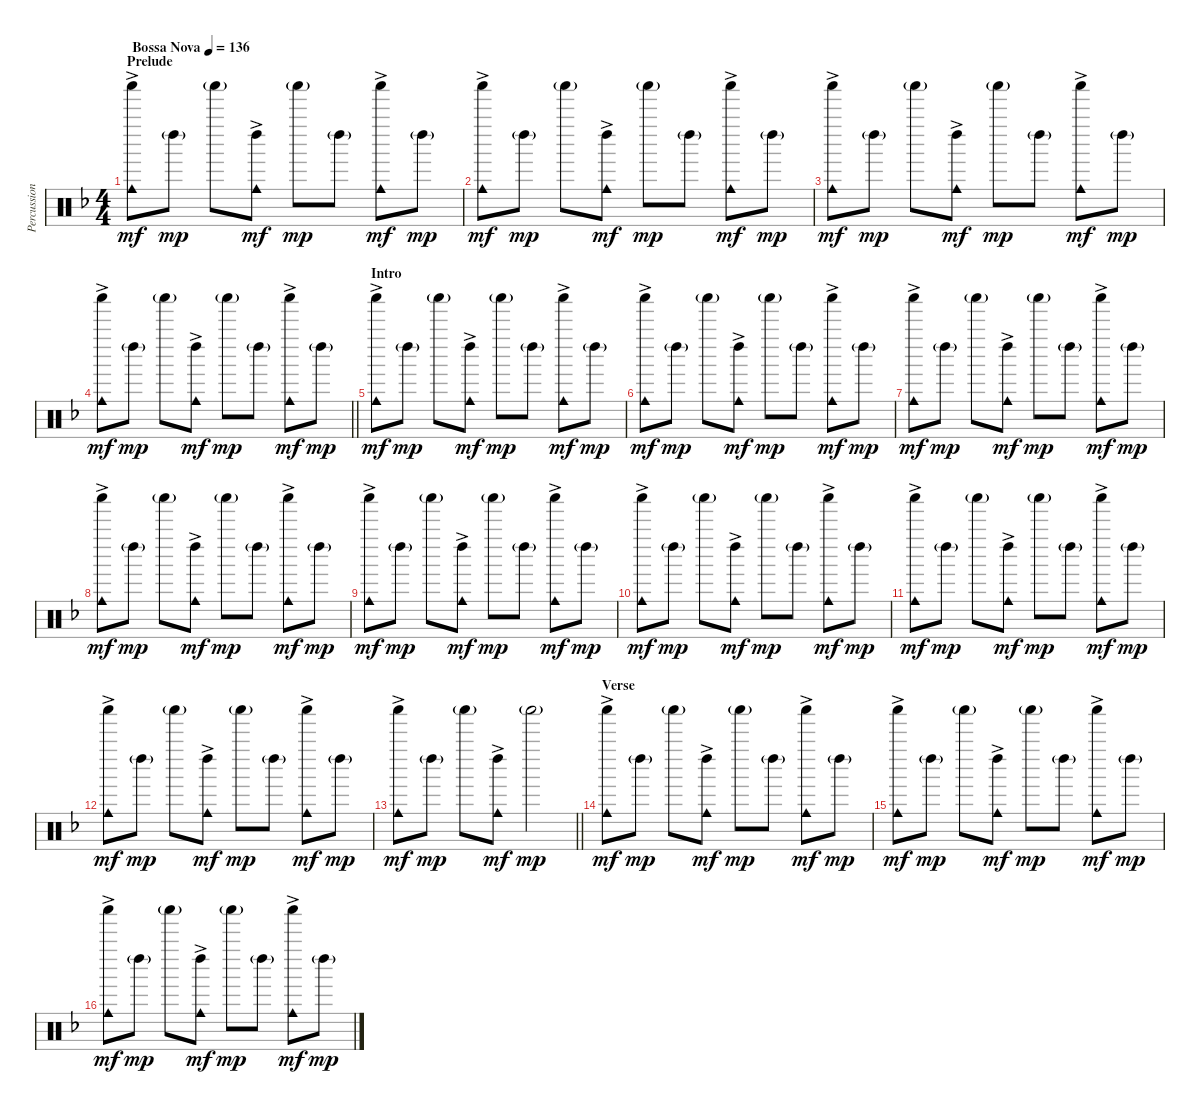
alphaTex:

\track ("Percussion" "Percussion") {instrument percussion}
\staff {score}
\articulation defaults
\ts (4 4)
\section ("" "Prelude")
\tempo (136 "Bossa Nova")
\clef neutral
\ks f
("Shaker (hit)"{ac} "Cowbell medium (hit)").8{dy mf} "Left Maraca (hit)"{g}.8{dy mp} "Shaker (hit)"{g}.8 ("Left Maraca (hit)"{ac} "Cowbell medium (hit)").8{dy mf} "Shaker (hit)"{g}.8{dy mp} "Left Maraca (hit)"{g}.8 ("Shaker (hit)"{ac} "Cowbell medium (hit)").8{dy mf} "Left Maraca (hit)"{g}.8{dy mp} |
("Shaker (hit)"{ac} "Cowbell medium (hit)").8{dy mf} "Left Maraca (hit)"{g}.8{dy mp} "Shaker (hit)"{g}.8 ("Left Maraca (hit)"{ac} "Cowbell medium (hit)").8{dy mf} "Shaker (hit)"{g}.8{dy mp} "Left Maraca (hit)"{g}.8 ("Shaker (hit)"{ac} "Cowbell medium (hit)").8{dy mf} "Left Maraca (hit)"{g}.8{dy mp} |
("Shaker (hit)"{ac} "Cowbell medium (hit)").8{dy mf} "Left Maraca (hit)"{g}.8{dy mp} "Shaker (hit)"{g}.8 ("Left Maraca (hit)"{ac} "Cowbell medium (hit)").8{dy mf} "Shaker (hit)"{g}.8{dy mp} "Left Maraca (hit)"{g}.8 ("Shaker (hit)"{ac} "Cowbell medium (hit)").8{dy mf} "Left Maraca (hit)"{g}.8{dy mp} |
\barLineRight lightlight
("Shaker (hit)"{ac} "Cowbell medium (hit)").8{dy mf} "Left Maraca (hit)"{g}.8{dy mp} "Shaker (hit)"{g}.8 ("Left Maraca (hit)"{ac} "Cowbell medium (hit)").8{dy mf} "Shaker (hit)"{g}.8{dy mp} "Left Maraca (hit)"{g}.8 ("Shaker (hit)"{ac} "Cowbell medium (hit)").8{dy mf} "Left Maraca (hit)"{g}.8{dy mp} |
\section ("" "Intro")
("Shaker (hit)"{ac} "Cowbell medium (hit)").8{dy mf} "Left Maraca (hit)"{g}.8{dy mp} "Shaker (hit)"{g}.8 ("Left Maraca (hit)"{ac} "Cowbell medium (hit)").8{dy mf} "Shaker (hit)"{g}.8{dy mp} "Left Maraca (hit)"{g}.8 ("Shaker (hit)"{ac} "Cowbell medium (hit)").8{dy mf} "Left Maraca (hit)"{g}.8{dy mp} |
("Shaker (hit)"{ac} "Cowbell medium (hit)").8{dy mf} "Left Maraca (hit)"{g}.8{dy mp} "Shaker (hit)"{g}.8 ("Left Maraca (hit)"{ac} "Cowbell medium (hit)").8{dy mf} "Shaker (hit)"{g}.8{dy mp} "Left Maraca (hit)"{g}.8 ("Shaker (hit)"{ac} "Cowbell medium (hit)").8{dy mf} "Left Maraca (hit)"{g}.8{dy mp} |
("Shaker (hit)"{ac} "Cowbell medium (hit)").8{dy mf} "Left Maraca (hit)"{g}.8{dy mp} "Shaker (hit)"{g}.8 ("Left Maraca (hit)"{ac} "Cowbell medium (hit)").8{dy mf} "Shaker (hit)"{g}.8{dy mp} "Left Maraca (hit)"{g}.8 ("Shaker (hit)"{ac} "Cowbell medium (hit)").8{dy mf} "Left Maraca (hit)"{g}.8{dy mp} |
("Shaker (hit)"{ac} "Cowbell medium (hit)").8{dy mf} "Left Maraca (hit)"{g}.8{dy mp} "Shaker (hit)"{g}.8 ("Left Maraca (hit)"{ac} "Cowbell medium (hit)").8{dy mf} "Shaker (hit)"{g}.8{dy mp} "Left Maraca (hit)"{g}.8 ("Shaker (hit)"{ac} "Cowbell medium (hit)").8{dy mf} "Left Maraca (hit)"{g}.8{dy mp} |
("Shaker (hit)"{ac} "Cowbell medium (hit)").8{dy mf} "Left Maraca (hit)"{g}.8{dy mp} "Shaker (hit)"{g}.8 ("Left Maraca (hit)"{ac} "Cowbell medium (hit)").8{dy mf} "Shaker (hit)"{g}.8{dy mp} "Left Maraca (hit)"{g}.8 ("Shaker (hit)"{ac} "Cowbell medium (hit)").8{dy mf} "Left Maraca (hit)"{g}.8{dy mp} |
("Shaker (hit)"{ac} "Cowbell medium (hit)").8{dy mf} "Left Maraca (hit)"{g}.8{dy mp} "Shaker (hit)"{g}.8 ("Left Maraca (hit)"{ac} "Cowbell medium (hit)").8{dy mf} "Shaker (hit)"{g}.8{dy mp} "Left Maraca (hit)"{g}.8 ("Shaker (hit)"{ac} "Cowbell medium (hit)").8{dy mf} "Left Maraca (hit)"{g}.8{dy mp} |
("Shaker (hit)"{ac} "Cowbell medium (hit)").8{dy mf} "Left Maraca (hit)"{g}.8{dy mp} "Shaker (hit)"{g}.8 ("Left Maraca (hit)"{ac} "Cowbell medium (hit)").8{dy mf} "Shaker (hit)"{g}.8{dy mp} "Left Maraca (hit)"{g}.8 ("Shaker (hit)"{ac} "Cowbell medium (hit)").8{dy mf} "Left Maraca (hit)"{g}.8{dy mp} |
("Shaker (hit)"{ac} "Cowbell medium (hit)").8{dy mf} "Left Maraca (hit)"{g}.8{dy mp} "Shaker (hit)"{g}.8 ("Left Maraca (hit)"{ac} "Cowbell medium (hit)").8{dy mf} "Shaker (hit)"{g}.8{dy mp} "Left Maraca (hit)"{g}.8 ("Shaker (hit)"{ac} "Cowbell medium (hit)").8{dy mf} "Left Maraca (hit)"{g}.8{dy mp} |
\barLineRight lightlight
("Shaker (hit)"{ac} "Cowbell medium (hit)").8{dy mf} "Left Maraca (hit)"{g}.8{dy mp} "Shaker (hit)"{g}.8 ("Left Maraca (hit)"{ac} "Cowbell medium (hit)").8{dy mf} "Shaker (hit)"{g}.2{dy mp} |
\section ("" "Verse")
("Shaker (hit)"{ac} "Cowbell medium (hit)").8{dy mf} "Left Maraca (hit)"{g}.8{dy mp} "Shaker (hit)"{g}.8 ("Left Maraca (hit)"{ac} "Cowbell medium (hit)").8{dy mf} "Shaker (hit)"{g}.8{dy mp} "Left Maraca (hit)"{g}.8 ("Shaker (hit)"{ac} "Cowbell medium (hit)").8{dy mf} "Left Maraca (hit)"{g}.8{dy mp} |
("Shaker (hit)"{ac} "Cowbell medium (hit)").8{dy mf} "Left Maraca (hit)"{g}.8{dy mp} "Shaker (hit)"{g}.8 ("Left Maraca (hit)"{ac} "Cowbell medium (hit)").8{dy mf} "Shaker (hit)"{g}.8{dy mp} "Left Maraca (hit)"{g}.8 ("Shaker (hit)"{ac} "Cowbell medium (hit)").8{dy mf} "Left Maraca (hit)"{g}.8{dy mp} |
("Shaker (hit)"{ac} "Cowbell medium (hit)").8{dy mf} "Left Maraca (hit)"{g}.8{dy mp} "Shaker (hit)"{g}.8 ("Left Maraca (hit)"{ac} "Cowbell medium (hit)").8{dy mf} "Shaker (hit)"{g}.8{dy mp} "Left Maraca (hit)"{g}.8 ("Shaker (hit)"{ac} "Cowbell medium (hit)").8{dy mf} "Left Maraca (hit)"{g}.8{dy mp}
